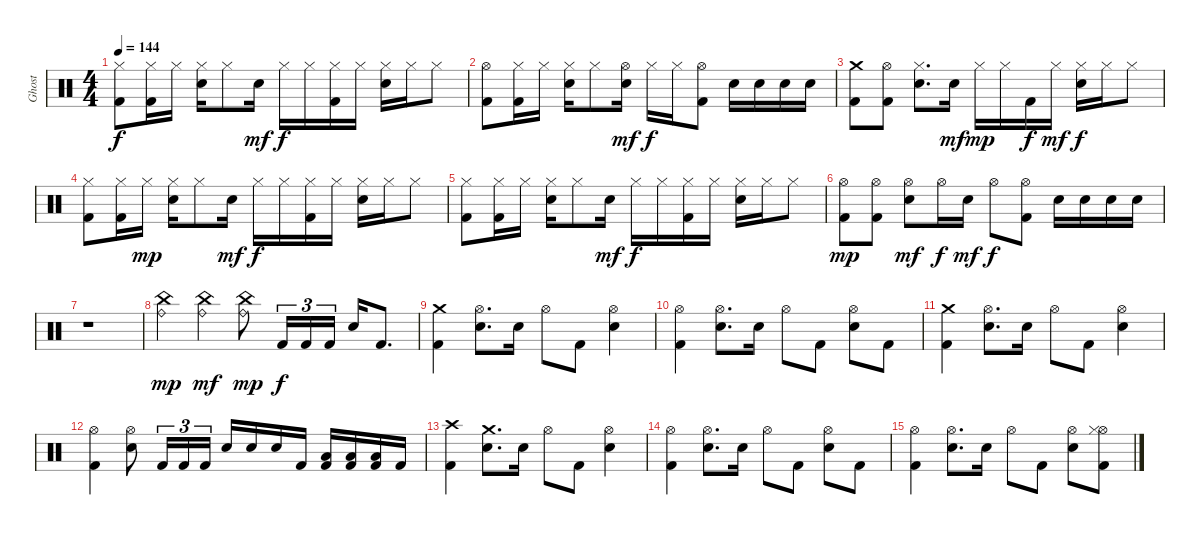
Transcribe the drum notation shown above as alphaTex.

\track ("Ghost" "Ghost") {instrument percussion}
\staff {score}
\articulation defaults
\ts (4 4)
\tempo 144
\clef neutral
\ks c
("Hi-Hat (closed)" "Kick (hit) 2").8{dy f} ("Hi-Hat (closed)" "Kick (hit) 2").16 "Hi-Hat (closed)".16 ("Hi-Hat (closed)" "Electric Snare (hit)").16 "Hi-Hat (closed)".8 "Electric Snare (hit)".16{dy mf} "Hi-Hat (closed)".16{dy f} "Hi-Hat (closed)".16 ("Hi-Hat (closed)" "Kick (hit) 2").16 "Hi-Hat (closed)".16 ("Hi-Hat (closed)" "Electric Snare (hit)").16 "Hi-Hat (closed)".16 "Hi-Hat (closed)".8 |
("Hi-Hat (open)" "Kick (hit) 2").8 ("Hi-Hat (closed)" "Kick (hit) 2").16 "Hi-Hat (closed)".16 ("Hi-Hat (closed)" "Electric Snare (hit)").16 "Hi-Hat (closed)".8 ("Hi-Hat (open)" "Electric Snare (hit)").16{dy mf} "Hi-Hat (closed)".16{dy f} "Hi-Hat (closed)".16 ("Hi-Hat (open)" "Kick (hit) 2").8 "Electric Snare (hit)".16 "Electric Snare (hit)".16 "Electric Snare (hit)".16 "Electric Snare (hit)".16 |
("Crash medium (hit)" "Kick (hit) 2").8 ("Hi-Hat (open)" "Kick (hit) 2").8 ("Hi-Hat (closed)" "Electric Snare (hit)").8{d} "Electric Snare (hit)".16{dy mf} "Hi-Hat (closed)".16{dy mp} "Hi-Hat (closed)".16 "Kick (hit) 2".16{dy f} "Hi-Hat (closed)".16{dy mf} ("Hi-Hat (closed)" "Electric Snare (hit)").16{dy f} "Hi-Hat (closed)".16 "Hi-Hat (closed)".8 |
("Hi-Hat (closed)" "Kick (hit) 2").8 ("Hi-Hat (closed)" "Kick (hit) 2").16 "Hi-Hat (closed)".16{dy mp} ("Hi-Hat (closed)" "Electric Snare (hit)").16 "Hi-Hat (closed)".8 "Electric Snare (hit)".16{dy mf} "Hi-Hat (closed)".16{dy f} "Hi-Hat (closed)".16 ("Hi-Hat (closed)" "Kick (hit) 2").16 "Hi-Hat (closed)".16 ("Hi-Hat (closed)" "Electric Snare (hit)").16 "Hi-Hat (closed)".16 "Hi-Hat (closed)".8 |
("Hi-Hat (closed)" "Kick (hit) 2").8 ("Hi-Hat (closed)" "Kick (hit) 2").16 "Hi-Hat (closed)".16 ("Hi-Hat (closed)" "Electric Snare (hit)").16 "Hi-Hat (closed)".8 "Electric Snare (hit)".16{dy mf} "Hi-Hat (closed)".16{dy f} "Hi-Hat (closed)".16 ("Hi-Hat (closed)" "Kick (hit) 2").16 "Hi-Hat (closed)".16 ("Hi-Hat (closed)" "Electric Snare (hit)").16 "Hi-Hat (closed)".16 "Hi-Hat (closed)".8 |
("Hi-Hat (open)" "Kick (hit) 2").8{dy mp} ("Hi-Hat (open)" "Kick (hit) 2").8 ("Hi-Hat (open)" "Electric Snare (hit)").8{dy mf} "Hi-Hat (open)".16{dy f} "Electric Snare (hit)".16{dy mf} "Hi-Hat (open)".8{dy f} ("Hi-Hat (open)" "Kick (hit) 2").8 "Electric Snare (hit)".16 "Electric Snare (hit)".16 "Electric Snare (hit)".16 "Electric Snare (hit)".16 |
r.1 |
("China (hit)" "Ride (bell)").4{dy mp} ("China (hit)" "Ride (bell)").4{dy mf} ("China (hit)" "Ride (bell)").8{dy mp} "Kick (hit) 2".16{tu (3 2) dy f} "Kick (hit) 2".16{tu (3 2)} "Kick (hit) 2".16{tu (3 2)} "Electric Snare (hit)".16 "Kick (hit) 2".8{d} |
("Crash medium (hit)" "Kick (hit) 2").4 ("Hi-Hat (open)" "Electric Snare (hit)").8{d} "Electric Snare (hit)".16 "Hi-Hat (open)".8 "Kick (hit) 2".8 ("Hi-Hat (open)" "Electric Snare (hit)").4 |
("Hi-Hat (open)" "Kick (hit) 2").4 ("Hi-Hat (open)" "Electric Snare (hit)").8{d} "Electric Snare (hit)".16 "Hi-Hat (open)".8 "Kick (hit) 2".8 ("Hi-Hat (open)" "Electric Snare (hit)").8 "Kick (hit) 2".8 |
("Crash medium (hit)" "Kick (hit) 2").4 ("Hi-Hat (open)" "Electric Snare (hit)").8{d} "Electric Snare (hit)".16 "Hi-Hat (open)".8 "Kick (hit) 2".8 ("Hi-Hat (open)" "Electric Snare (hit)").4 |
("Hi-Hat (open)" "Kick (hit) 2").4 ("Hi-Hat (open)" "Electric Snare (hit)").8 "Kick (hit) 2".16{tu (3 2)} "Kick (hit) 2".16{tu (3 2)} "Kick (hit) 2".16{tu (3 2)} "Electric Snare (hit)".16 "Electric Snare (hit)".16 "Electric Snare (hit)".16 "Kick (hit) 2".16 ("Low Tom (hit)" "Kick (hit) 2").16 ("Low Tom (hit)" "Kick (hit) 2").16 ("Low Tom (hit)" "Kick (hit) 2").16 "Kick (hit) 2".16 |
("Crash high (hit)" "Kick (hit) 2").4 ("Crash medium (hit)" "Electric Snare (hit)").8{d} "Electric Snare (hit)".16 "Hi-Hat (open)".8 "Kick (hit) 2".8 ("Hi-Hat (open)" "Electric Snare (hit)").4 |
("Hi-Hat (open)" "Kick (hit) 2").4 ("Hi-Hat (open)" "Electric Snare (hit)").8{d} "Electric Snare (hit)".16 "Hi-Hat (open)".8 "Kick (hit) 2".8 ("Hi-Hat (open)" "Electric Snare (hit)").8 "Kick (hit) 2".8 |
("Hi-Hat (open)" "Kick (hit) 2").4 ("Hi-Hat (open)" "Electric Snare (hit)").8{d} "Electric Snare (hit)".16 "Hi-Hat (open)".8 "Kick (hit) 2".8 ("Hi-Hat (open)" "Electric Snare (hit)").8 ("Hi-Hat (open)" "Hi-Hat (closed)" "Kick (hit) 2").8
